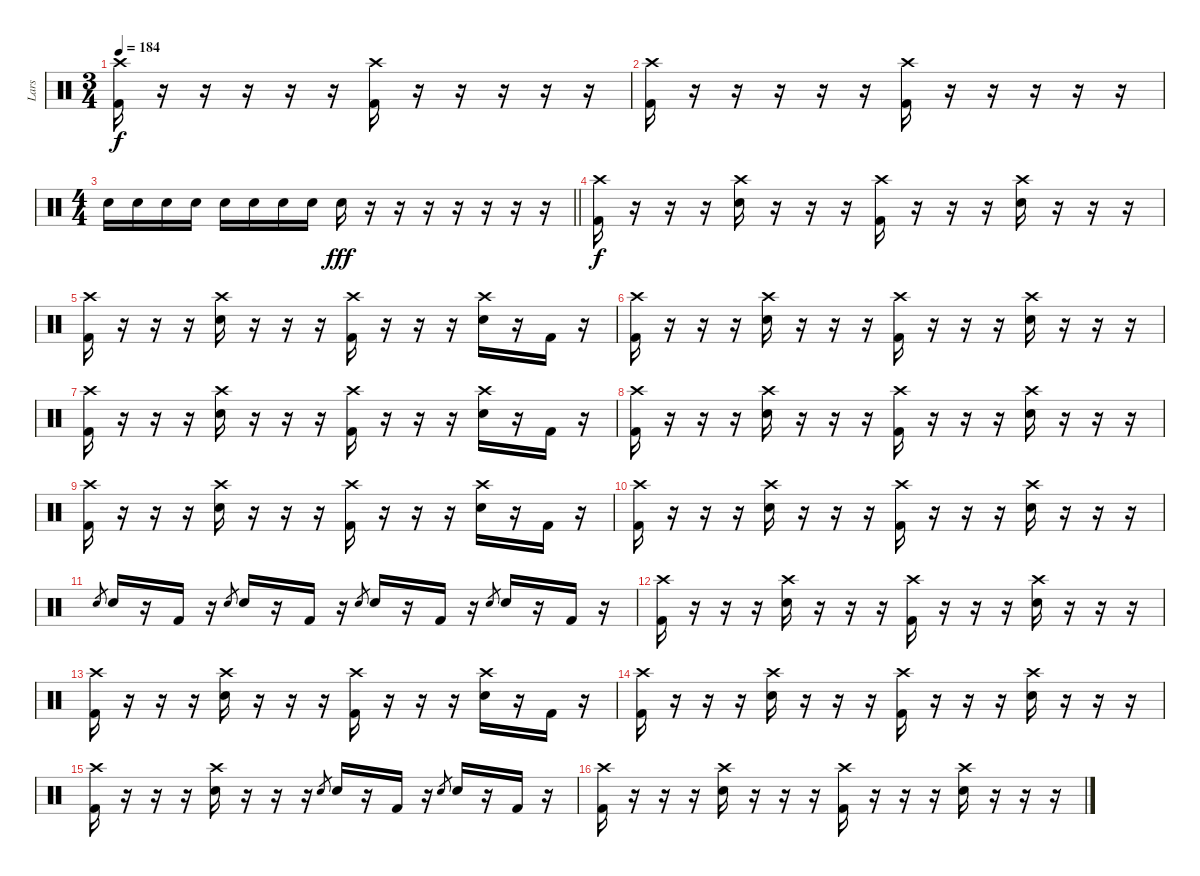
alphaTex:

\track ("Lars" "Lars") {instrument percussion}
\staff {score}
\articulation defaults
\ts (3 4)
\tempo 184
\clef neutral
\ks c
("Crash high (hit)" "Kick (hit) 2").16{dy f} r.16 r.16 r.16 r.16 r.16 ("Crash high (hit)" "Kick (hit) 2").16 r.16 r.16 r.16 r.16 r.16 |
("Crash high (hit)" "Kick (hit) 2").16 r.16 r.16 r.16 r.16 r.16 ("Crash high (hit)" "Kick (hit) 2").16 r.16 r.16 r.16 r.16 r.16 |
\ts (4 4)
\barLineRight lightlight "Electric Snare (hit)".16 "Electric Snare (hit)".16 "Electric Snare (hit)".16 "Electric Snare (hit)".16 "Electric Snare (hit)".16 "Electric Snare (hit)".16 "Electric Snare (hit)".16 "Electric Snare (hit)".16 "Electric Snare (hit)".16{dy fff}
r.16 r.16 r.16 r.16 r.16 r.16 r.16 |
("Crash high (hit)" "Kick (hit) 2").16{dy f} r.16 r.16 r.16 ("Crash high (hit)" "Electric Snare (hit)").16 r.16 r.16 r.16 ("Crash high (hit)" "Kick (hit) 2").16 r.16 r.16 r.16 ("Crash high (hit)" "Electric Snare (hit)").16 r.16 r.16 r.16 |
("Crash high (hit)" "Kick (hit) 2").16 r.16 r.16 r.16 ("Crash high (hit)" "Electric Snare (hit)").16 r.16 r.16 r.16 ("Crash high (hit)" "Kick (hit) 2").16 r.16 r.16 r.16 ("Crash high (hit)" "Electric Snare (hit)").16 r.16 "Kick (hit) 2".16 r.16 |
("Crash high (hit)" "Kick (hit) 2").16 r.16 r.16 r.16 ("Crash high (hit)" "Electric Snare (hit)").16 r.16 r.16 r.16 ("Crash high (hit)" "Kick (hit) 2").16 r.16 r.16 r.16 ("Crash high (hit)" "Electric Snare (hit)").16 r.16 r.16 r.16 |
("Crash high (hit)" "Kick (hit) 2").16 r.16 r.16 r.16 ("Crash high (hit)" "Electric Snare (hit)").16 r.16 r.16 r.16 ("Crash high (hit)" "Kick (hit) 2").16 r.16 r.16 r.16 ("Crash high (hit)" "Electric Snare (hit)").16 r.16 "Kick (hit) 2".16 r.16 |
("Crash high (hit)" "Kick (hit) 2").16 r.16 r.16 r.16 ("Crash high (hit)" "Electric Snare (hit)").16 r.16 r.16 r.16 ("Crash high (hit)" "Kick (hit) 2").16 r.16 r.16 r.16 ("Crash high (hit)" "Electric Snare (hit)").16 r.16 r.16 r.16 |
("Crash high (hit)" "Kick (hit) 2").16 r.16 r.16 r.16 ("Crash high (hit)" "Electric Snare (hit)").16 r.16 r.16 r.16 ("Crash high (hit)" "Kick (hit) 2").16 r.16 r.16 r.16 ("Crash high (hit)" "Electric Snare (hit)").16 r.16 "Kick (hit) 2".16 r.16 |
("Crash high (hit)" "Kick (hit) 2").16 r.16 r.16 r.16 ("Crash high (hit)" "Electric Snare (hit)").16 r.16 r.16 r.16 ("Crash high (hit)" "Kick (hit) 2").16 r.16 r.16 r.16 ("Crash high (hit)" "Electric Snare (hit)").16 r.16 r.16 r.16 |
"Electric Snare (hit)".8{gr} "Electric Snare (hit)".16 r.16 "Kick (hit) 2".16 r.16 "Electric Snare (hit)".8{gr} "Electric Snare (hit)".16 r.16 "Kick (hit) 2".16 r.16 "Electric Snare (hit)".8{gr} "Electric Snare (hit)".16 r.16 "Kick (hit) 2".16 r.16 "Electric Snare (hit)".8{gr} "Electric Snare (hit)".16 r.16 "Kick (hit) 2".16 r.16 |
("Crash high (hit)" "Kick (hit) 2").16 r.16 r.16 r.16 ("Crash high (hit)" "Electric Snare (hit)").16 r.16 r.16 r.16 ("Crash high (hit)" "Kick (hit) 2").16 r.16 r.16 r.16 ("Crash high (hit)" "Electric Snare (hit)").16 r.16 r.16 r.16 |
("Crash high (hit)" "Kick (hit) 2").16 r.16 r.16 r.16 ("Crash high (hit)" "Electric Snare (hit)").16 r.16 r.16 r.16 ("Crash high (hit)" "Kick (hit) 2").16 r.16 r.16 r.16 ("Crash high (hit)" "Electric Snare (hit)").16 r.16 "Kick (hit) 2".16 r.16 |
("Crash high (hit)" "Kick (hit) 2").16 r.16 r.16 r.16 ("Crash high (hit)" "Electric Snare (hit)").16 r.16 r.16 r.16 ("Crash high (hit)" "Kick (hit) 2").16 r.16 r.16 r.16 ("Crash high (hit)" "Electric Snare (hit)").16 r.16 r.16 r.16 |
("Crash high (hit)" "Kick (hit) 2").16 r.16 r.16 r.16 ("Crash high (hit)" "Electric Snare (hit)").16 r.16 r.16 r.16 "Electric Snare (hit)".8{gr} "Electric Snare (hit)".16 r.16 "Kick (hit) 2".16 r.16 "Electric Snare (hit)".8{gr} "Electric Snare (hit)".16 r.16 "Kick (hit) 2".16 r.16 |
("Crash high (hit)" "Kick (hit) 2").16 r.16 r.16 r.16 ("Crash high (hit)" "Electric Snare (hit)").16 r.16 r.16 r.16 ("Crash high (hit)" "Kick (hit) 2").16 r.16 r.16 r.16 ("Crash high (hit)" "Electric Snare (hit)").16 r.16 r.16 r.16
